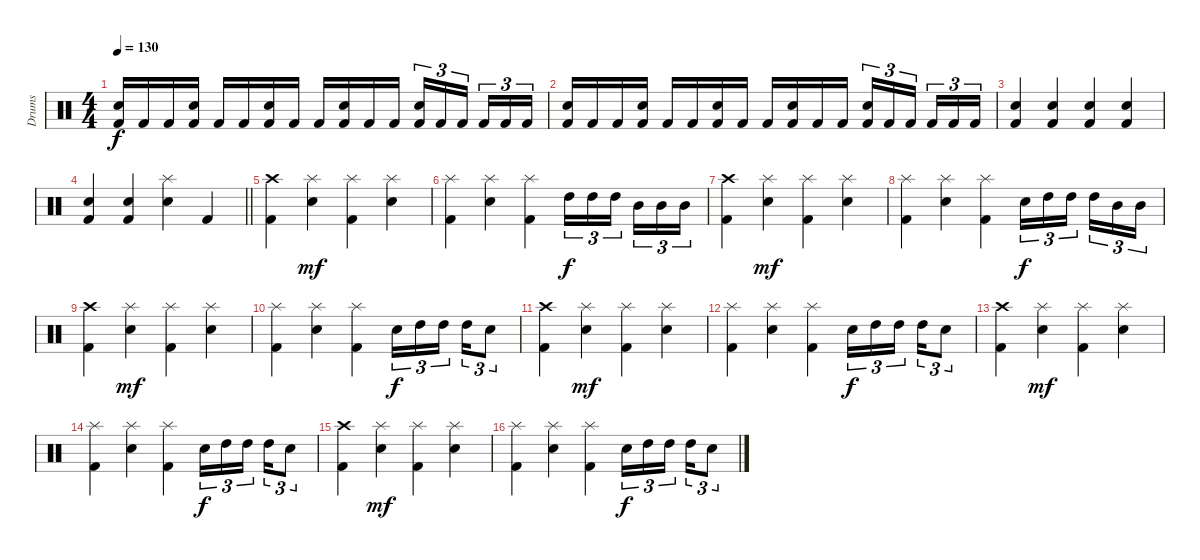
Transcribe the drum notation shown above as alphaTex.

\track ("Drums" "Drums") {instrument percussion}
\staff {score}
\articulation defaults
\ts (4 4)
\tempo 130
\clef neutral
\ks c
("Electric Snare (hit)" "Kick (hit) 2").16{dy f} "Kick (hit) 2".16 "Kick (hit) 2".16 ("Electric Snare (hit)" "Kick (hit) 2").16 "Kick (hit) 2".16 "Kick (hit) 2".16 ("Electric Snare (hit)" "Kick (hit) 2").16 "Kick (hit) 2".16 "Kick (hit) 2".16 ("Electric Snare (hit)" "Kick (hit) 2").16 "Kick (hit) 2".16 "Kick (hit) 2".16 ("Electric Snare (hit)" "Kick (hit) 2").16{tu (3 2)} "Kick (hit) 2".16{tu (3 2)} "Kick (hit) 2".16{tu (3 2)} "Kick (hit) 2".16{tu (3 2)} "Kick (hit) 2".16{tu (3 2)} "Kick (hit) 2".16{tu (3 2)} |
("Electric Snare (hit)" "Kick (hit) 2").16 "Kick (hit) 2".16 "Kick (hit) 2".16 ("Electric Snare (hit)" "Kick (hit) 2").16 "Kick (hit) 2".16 "Kick (hit) 2".16 ("Electric Snare (hit)" "Kick (hit) 2").16 "Kick (hit) 2".16 "Kick (hit) 2".16 ("Electric Snare (hit)" "Kick (hit) 2").16 "Kick (hit) 2".16 "Kick (hit) 2".16 ("Electric Snare (hit)" "Kick (hit) 2").16{tu (3 2)} "Kick (hit) 2".16{tu (3 2)} "Kick (hit) 2".16{tu (3 2)} "Kick (hit) 2".16{tu (3 2)} "Kick (hit) 2".16{tu (3 2)} "Kick (hit) 2".16{tu (3 2)} |
("Electric Snare (hit)" "Kick (hit) 2").4 ("Electric Snare (hit)" "Kick (hit) 2").4 ("Electric Snare (hit)" "Kick (hit) 2").4 ("Electric Snare (hit)" "Kick (hit) 2").4 |
\barLineRight lightlight
("Electric Snare (hit)" "Kick (hit) 2").4 ("Electric Snare (hit)" "Kick (hit) 2").4 ("Splash (hit)" "Electric Snare (hit)").4 "Kick (hit) 2".4 |
("Crash high (hit)" "Kick (hit) 2").4 ("Splash (hit)" "Electric Snare (hit)").4{dy mf} ("Splash (hit)" "Kick (hit) 2").4 ("Splash (hit)" "Electric Snare (hit)").4 |
("Splash (hit)" "Kick (hit) 2").4 ("Splash (hit)" "Electric Snare (hit)").4 ("Splash (hit)" "Kick (hit) 2").4 "High Tom (hit)".16{tu (3 2) dy f} "High Tom (hit)".16{tu (3 2)} "High Tom (hit)".16{tu (3 2)} "Mid Tom (hit)".16{tu (3 2)} "Mid Tom (hit)".16{tu (3 2)} "Mid Tom (hit)".16{tu (3 2)} |
("Crash high (hit)" "Kick (hit) 2").4 ("Splash (hit)" "Electric Snare (hit)").4{dy mf} ("Splash (hit)" "Kick (hit) 2").4 ("Splash (hit)" "Electric Snare (hit)").4 |
("Splash (hit)" "Kick (hit) 2").4 ("Splash (hit)" "Electric Snare (hit)").4 ("Splash (hit)" "Kick (hit) 2").4 "Electric Snare (hit)".16{tu (3 2) dy f} "High Tom (hit)".16{tu (3 2)} "High Tom (hit)".16{tu (3 2)} "High Tom (hit)".16{tu (3 2)} "Mid Tom (hit)".16{tu (3 2)} "Mid Tom (hit)".16{tu (3 2)} |
("Crash high (hit)" "Kick (hit) 2").4 ("Splash (hit)" "Electric Snare (hit)").4{dy mf} ("Splash (hit)" "Kick (hit) 2").4 ("Splash (hit)" "Electric Snare (hit)").4 |
("Splash (hit)" "Kick (hit) 2").4 ("Splash (hit)" "Electric Snare (hit)").4 ("Splash (hit)" "Kick (hit) 2").4 "Electric Snare (hit)".16{tu (3 2) dy f} "High Tom (hit)".16{tu (3 2)} "High Tom (hit)".16{tu (3 2)} "High Tom (hit)".16{tu (3 2)} "Electric Snare (hit)".8{tu (3 2)} |
("Crash high (hit)" "Kick (hit) 2").4 ("Splash (hit)" "Electric Snare (hit)").4{dy mf} ("Splash (hit)" "Kick (hit) 2").4 ("Splash (hit)" "Electric Snare (hit)").4 |
("Splash (hit)" "Kick (hit) 2").4 ("Splash (hit)" "Electric Snare (hit)").4 ("Splash (hit)" "Kick (hit) 2").4 "Electric Snare (hit)".16{tu (3 2) dy f} "High Tom (hit)".16{tu (3 2)} "High Tom (hit)".16{tu (3 2)} "High Tom (hit)".16{tu (3 2)} "Electric Snare (hit)".8{tu (3 2)} |
("Crash high (hit)" "Kick (hit) 2").4 ("Splash (hit)" "Electric Snare (hit)").4{dy mf} ("Splash (hit)" "Kick (hit) 2").4 ("Splash (hit)" "Electric Snare (hit)").4 |
("Splash (hit)" "Kick (hit) 2").4 ("Splash (hit)" "Electric Snare (hit)").4 ("Splash (hit)" "Kick (hit) 2").4 "Electric Snare (hit)".16{tu (3 2) dy f} "High Tom (hit)".16{tu (3 2)} "High Tom (hit)".16{tu (3 2)} "High Tom (hit)".16{tu (3 2)} "Electric Snare (hit)".8{tu (3 2)} |
("Crash high (hit)" "Kick (hit) 2").4 ("Splash (hit)" "Electric Snare (hit)").4{dy mf} ("Splash (hit)" "Kick (hit) 2").4 ("Splash (hit)" "Electric Snare (hit)").4 |
("Splash (hit)" "Kick (hit) 2").4 ("Splash (hit)" "Electric Snare (hit)").4 ("Splash (hit)" "Kick (hit) 2").4 "Electric Snare (hit)".16{tu (3 2) dy f} "High Tom (hit)".16{tu (3 2)} "High Tom (hit)".16{tu (3 2)} "High Tom (hit)".16{tu (3 2)} "Electric Snare (hit)".8{tu (3 2)}
